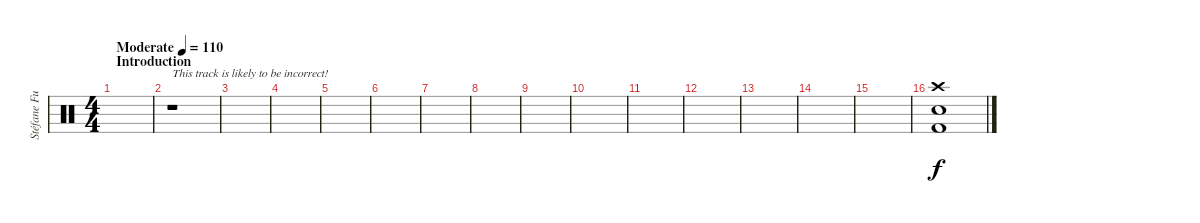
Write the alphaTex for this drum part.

\track ("Stéfane Funebre" "Stéfane Fu") {instrument percussion}
\staff {score}
\articulation defaults
\ts (4 4)
\section ("" "Introduction")
\tempo (110 "Moderate")
\clef neutral
\ks c
|
r.1{txt "This track is likely to be incorrect!"} |
|
|
|
|
|
|
|
|
|
|
|
|
|
("Crash high (hit)" "Snare (hit) 2" "Kick (hit) 2").1
